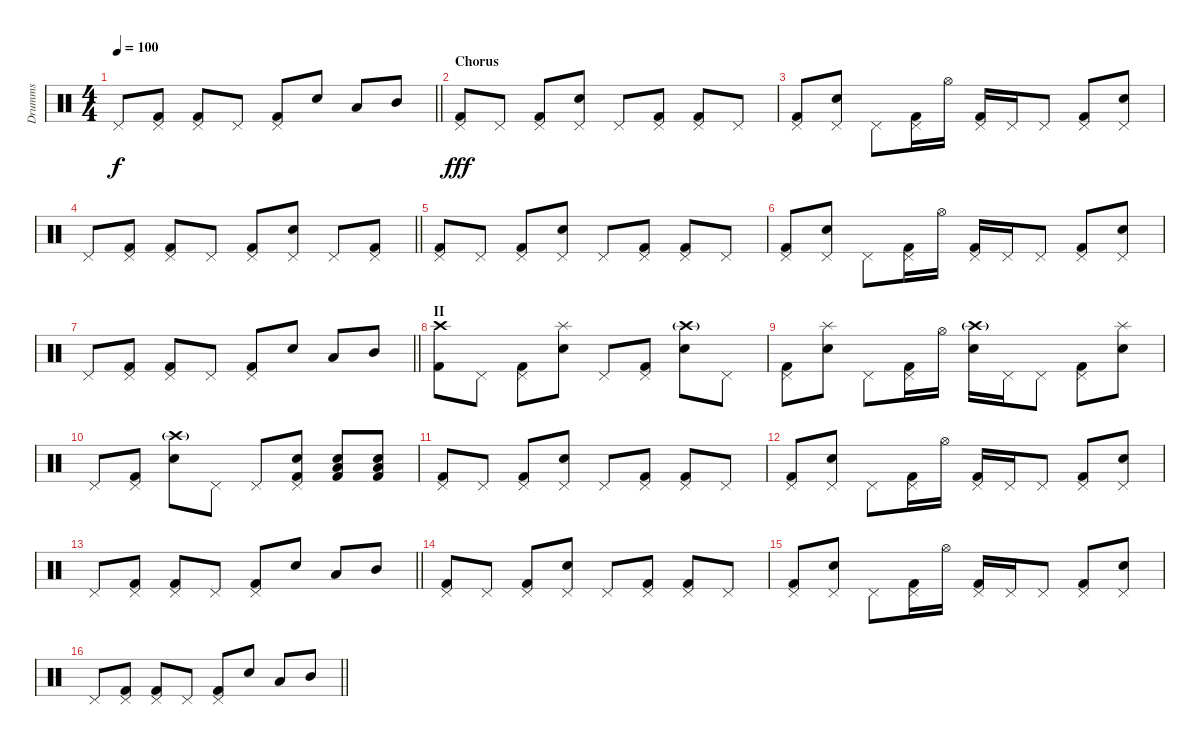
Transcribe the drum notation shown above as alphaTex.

\track ("Drumms" "Drumms") {instrument percussion}
\staff {score}
\articulation defaults
\ts (4 4)
\tempo 100
\clef neutral
\barLineRight lightlight
\ks c "Pedal Hi-Hat (hit)".8{dy f}
("Pedal Hi-Hat (hit)" "Kick (hit) 2").8 ("Pedal Hi-Hat (hit)" "Kick (hit) 2").8 "Pedal Hi-Hat (hit)".8 ("Pedal Hi-Hat (hit)" "Kick (hit) 2").8 "Snare (hit) 2".8 "Low Tom (hit)".8 "Mid Tom (hit)".8 |
\section ("" "Chorus")
("Pedal Hi-Hat (hit)" "Kick (hit) 2").8{dy fff} "Pedal Hi-Hat (hit)".8 ("Pedal Hi-Hat (hit)" "Kick (hit) 2").8 ("Pedal Hi-Hat (hit)" "Snare (hit) 2").8 "Pedal Hi-Hat (hit)".8 ("Pedal Hi-Hat (hit)" "Kick (hit) 2").8 ("Pedal Hi-Hat (hit)" "Kick (hit) 2").8 "Pedal Hi-Hat (hit)".8 |
("Pedal Hi-Hat (hit)" "Kick (hit) 2").8 ("Pedal Hi-Hat (hit)" "Snare (hit) 2").8 "Pedal Hi-Hat (hit)".8 ("Pedal Hi-Hat (hit)" "Kick (hit) 2").16 "Hi-Hat (open)".16 ("Pedal Hi-Hat (hit)" "Kick (hit) 2").16 "Pedal Hi-Hat (hit)".16 "Pedal Hi-Hat (hit)".8 ("Pedal Hi-Hat (hit)" "Kick (hit) 2").8 ("Pedal Hi-Hat (hit)" "Snare (hit) 2").8 |
\barLineRight lightlight "Pedal Hi-Hat (hit)".8
("Pedal Hi-Hat (hit)" "Kick (hit) 2").8 ("Pedal Hi-Hat (hit)" "Kick (hit) 2").8 "Pedal Hi-Hat (hit)".8 ("Pedal Hi-Hat (hit)" "Kick (hit) 2").8 ("Pedal Hi-Hat (hit)" "Snare (hit) 2").8 "Pedal Hi-Hat (hit)".8 ("Pedal Hi-Hat (hit)" "Kick (hit) 2").8 |
("Pedal Hi-Hat (hit)" "Kick (hit) 2").8 "Pedal Hi-Hat (hit)".8 ("Pedal Hi-Hat (hit)" "Kick (hit) 2").8 ("Pedal Hi-Hat (hit)" "Snare (hit) 2").8 "Pedal Hi-Hat (hit)".8 ("Pedal Hi-Hat (hit)" "Kick (hit) 2").8 ("Pedal Hi-Hat (hit)" "Kick (hit) 2").8 "Pedal Hi-Hat (hit)".8 |
("Pedal Hi-Hat (hit)" "Kick (hit) 2").8 ("Pedal Hi-Hat (hit)" "Snare (hit) 2").8 "Pedal Hi-Hat (hit)".8 ("Pedal Hi-Hat (hit)" "Kick (hit) 2").16 "Hi-Hat (open)".16 ("Pedal Hi-Hat (hit)" "Kick (hit) 2").16 "Pedal Hi-Hat (hit)".16 "Pedal Hi-Hat (hit)".8 ("Pedal Hi-Hat (hit)" "Kick (hit) 2").8 ("Pedal Hi-Hat (hit)" "Snare (hit) 2").8 |
\barLineRight lightlight "Pedal Hi-Hat (hit)".8
("Pedal Hi-Hat (hit)" "Kick (hit) 2").8 ("Pedal Hi-Hat (hit)" "Kick (hit) 2").8 "Pedal Hi-Hat (hit)".8 ("Pedal Hi-Hat (hit)" "Kick (hit) 2").8 "Snare (hit) 2".8 "Low Tom (hit)".8 "Mid Tom (hit)".8 |
\section ("" "II")
("Crash high (hit)" "Kick (hit) 2").8 "Pedal Hi-Hat (hit)".8 ("Pedal Hi-Hat (hit)" "Kick (hit) 2").8 ("Splash (hit)" "Snare (hit) 2").8 "Pedal Hi-Hat (hit)".8 ("Pedal Hi-Hat (hit)" "Kick (hit) 2").8 ("Crash high (hit)"{g} "Snare (hit) 2").8 "Pedal Hi-Hat (hit)".8 |
("Pedal Hi-Hat (hit)" "Kick (hit) 2").8 ("Splash (hit)" "Snare (hit) 2").8 "Pedal Hi-Hat (hit)".8 ("Pedal Hi-Hat (hit)" "Kick (hit) 2").16 "Hi-Hat (open)".16 ("Crash high (hit)"{g} "Snare (hit) 2").16 "Pedal Hi-Hat (hit)".16 "Pedal Hi-Hat (hit)".8 ("Pedal Hi-Hat (hit)" "Kick (hit) 2").8 ("Splash (hit)" "Snare (hit) 2").8 |
"Pedal Hi-Hat (hit)".8 ("Pedal Hi-Hat (hit)" "Kick (hit) 2").8 ("Crash high (hit)"{g} "Snare (hit) 2").8 "Pedal Hi-Hat (hit)".8 "Pedal Hi-Hat (hit)".8 ("Pedal Hi-Hat (hit)" "Snare (hit) 2" "Kick (hit) 2").8 ("Low Tom (hit)" "Snare (hit) 2" "Kick (hit) 2").8 ("Low Tom (hit)" "Snare (hit) 2" "Kick (hit) 2").8 |
("Pedal Hi-Hat (hit)" "Kick (hit) 2").8 "Pedal Hi-Hat (hit)".8 ("Pedal Hi-Hat (hit)" "Kick (hit) 2").8 ("Pedal Hi-Hat (hit)" "Snare (hit) 2").8 "Pedal Hi-Hat (hit)".8 ("Pedal Hi-Hat (hit)" "Kick (hit) 2").8 ("Pedal Hi-Hat (hit)" "Kick (hit) 2").8 "Pedal Hi-Hat (hit)".8 |
("Pedal Hi-Hat (hit)" "Kick (hit) 2").8 ("Pedal Hi-Hat (hit)" "Snare (hit) 2").8 "Pedal Hi-Hat (hit)".8 ("Pedal Hi-Hat (hit)" "Kick (hit) 2").16 "Hi-Hat (open)".16 ("Pedal Hi-Hat (hit)" "Kick (hit) 2").16 "Pedal Hi-Hat (hit)".16 "Pedal Hi-Hat (hit)".8 ("Pedal Hi-Hat (hit)" "Kick (hit) 2").8 ("Pedal Hi-Hat (hit)" "Snare (hit) 2").8 |
\barLineRight lightlight "Pedal Hi-Hat (hit)".8
("Pedal Hi-Hat (hit)" "Kick (hit) 2").8 ("Pedal Hi-Hat (hit)" "Kick (hit) 2").8 "Pedal Hi-Hat (hit)".8 ("Pedal Hi-Hat (hit)" "Kick (hit) 2").8 "Snare (hit) 2".8 "Low Tom (hit)".8 "Mid Tom (hit)".8 |
("Pedal Hi-Hat (hit)" "Kick (hit) 2").8 "Pedal Hi-Hat (hit)".8 ("Pedal Hi-Hat (hit)" "Kick (hit) 2").8 ("Pedal Hi-Hat (hit)" "Snare (hit) 2").8 "Pedal Hi-Hat (hit)".8 ("Pedal Hi-Hat (hit)" "Kick (hit) 2").8 ("Pedal Hi-Hat (hit)" "Kick (hit) 2").8 "Pedal Hi-Hat (hit)".8 |
("Pedal Hi-Hat (hit)" "Kick (hit) 2").8 ("Pedal Hi-Hat (hit)" "Snare (hit) 2").8 "Pedal Hi-Hat (hit)".8 ("Pedal Hi-Hat (hit)" "Kick (hit) 2").16 "Hi-Hat (open)".16 ("Pedal Hi-Hat (hit)" "Kick (hit) 2").16 "Pedal Hi-Hat (hit)".16 "Pedal Hi-Hat (hit)".8 ("Pedal Hi-Hat (hit)" "Kick (hit) 2").8 ("Pedal Hi-Hat (hit)" "Snare (hit) 2").8 |
\barLineRight lightlight "Pedal Hi-Hat (hit)".8
("Pedal Hi-Hat (hit)" "Kick (hit) 2").8 ("Pedal Hi-Hat (hit)" "Kick (hit) 2").8 "Pedal Hi-Hat (hit)".8 ("Pedal Hi-Hat (hit)" "Kick (hit) 2").8 "Snare (hit) 2".8 "Low Tom (hit)".8 "Mid Tom (hit)".8
